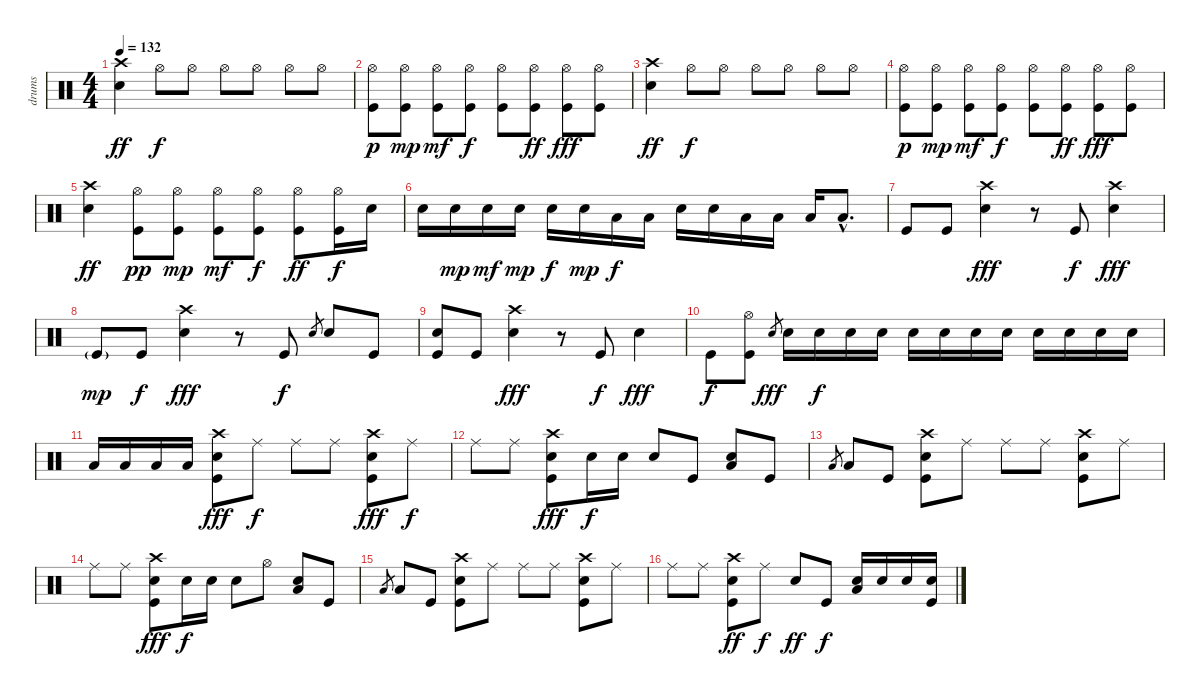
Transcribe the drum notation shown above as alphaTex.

\track ("drums" "drums") {instrument percussion}
\staff {score}
\articulation defaults
\ts (4 4)
\tempo 132
\clef neutral
\ks c
("Crash high (hit)" "Electric Snare (hit)").4{dy ff} "Hi-Hat (open)".8{dy f} "Hi-Hat (open)".8 "Hi-Hat (open)".8 "Hi-Hat (open)".8 "Hi-Hat (open)".8 "Hi-Hat (open)".8 |
("Hi-Hat (open)" "Kick (hit)").8{dy p} ("Hi-Hat (open)" "Kick (hit)").8{dy mp} ("Hi-Hat (open)" "Kick (hit)").8{dy mf} ("Hi-Hat (open)" "Kick (hit)").8{dy f} ("Hi-Hat (open)" "Kick (hit)").8 ("Hi-Hat (open)" "Kick (hit)").8{dy ff} ("Hi-Hat (open)" "Kick (hit)").8{dy fff} ("Hi-Hat (open)" "Kick (hit)").8 |
("Crash high (hit)" "Electric Snare (hit)").4{dy ff} "Hi-Hat (open)".8{dy f} "Hi-Hat (open)".8 "Hi-Hat (open)".8 "Hi-Hat (open)".8 "Hi-Hat (open)".8 "Hi-Hat (open)".8 |
("Hi-Hat (open)" "Kick (hit)").8{dy p} ("Hi-Hat (open)" "Kick (hit)").8{dy mp} ("Hi-Hat (open)" "Kick (hit)").8{dy mf} ("Hi-Hat (open)" "Kick (hit)").8{dy f} ("Hi-Hat (open)" "Kick (hit)").8 ("Hi-Hat (open)" "Kick (hit)").8{dy ff} ("Hi-Hat (open)" "Kick (hit)").8{dy fff} ("Hi-Hat (open)" "Kick (hit)").8 |
("Crash high (hit)" "Electric Snare (hit)").4{dy ff} ("Hi-Hat (open)" "Kick (hit)").8{dy pp} ("Hi-Hat (open)" "Kick (hit)").8{dy mp} ("Hi-Hat (open)" "Kick (hit)").8{dy mf} ("Hi-Hat (open)" "Kick (hit)").8{dy f} ("Hi-Hat (open)" "Kick (hit)").8{dy ff} ("Hi-Hat (open)" "Kick (hit)").16{dy f} "Electric Snare (hit)".16 |
"Electric Snare (hit)".16 "Electric Snare (hit)".16{dy mp} "Electric Snare (hit)".16{dy mf} "Electric Snare (hit)".16{dy mp} "Electric Snare (hit)".16{dy f} "Electric Snare (hit)".16{dy mp} "Low Tom (hit)".16{dy f} "Low Tom (hit)".16 "Electric Snare (hit)".16 "Electric Snare (hit)".16 "Low Tom (hit)".16 "Low Floor Tom (hit)".16 "Low Floor Tom (hit)".16 "Low Floor Tom (hit)"{hac}.8{d} |
"Kick (hit)".8 "Kick (hit)".8 ("Crash high (hit)" "Electric Snare (hit)").4{dy fff} r.8 "Kick (hit)".8{dy f} ("Crash high (hit)" "Electric Snare (hit)").4{dy fff} |
"Kick (hit)"{g}.8{dy mp} "Kick (hit)".8{dy f} ("Crash high (hit)" "Electric Snare (hit)").4{dy fff} r.8 "Kick (hit)".8{dy f} "Electric Snare (hit)".8{gr} "Electric Snare (hit)".8 "Kick (hit)".8 |
("Electric Snare (hit)" "Kick (hit)").8 "Kick (hit)".8 ("Crash high (hit)" "Electric Snare (hit)").4{dy fff} r.8 "Kick (hit)".8{dy f} "Electric Snare (hit)".4{dy fff} |
"Kick (hit)".8{dy f} ("Hi-Hat (open)" "Kick (hit)").8 "Electric Snare (hit)".8{gr dy fff} "Electric Snare (hit)".16 "Electric Snare (hit)".16{dy f} "Electric Snare (hit)".16 "Electric Snare (hit)".16 "Electric Snare (hit)".16 "Electric Snare (hit)".16 "Electric Snare (hit)".16 "Electric Snare (hit)".16 "Electric Snare (hit)".16 "Electric Snare (hit)".16 "Electric Snare (hit)".16 "Electric Snare (hit)".16 |
"Low Tom (hit)".16 "Low Tom (hit)".16 "Low Floor Tom (hit)".16 "Low Floor Tom (hit)".16 ("Crash high (hit)" "Electric Snare (hit)" "Kick (hit)").8{dy fff} "Ride (middle)".8{dy f} "Ride (middle)".8 "Ride (middle)".8 ("Crash high (hit)" "Electric Snare (hit)" "Kick (hit)").8{dy fff} "Ride (middle)".8{dy f} |
"Ride (middle)".8 "Ride (middle)".8 ("Crash high (hit)" "Electric Snare (hit)" "Kick (hit)").8{dy fff} "Electric Snare (hit)".16{dy f} "Electric Snare (hit)".16 "Electric Snare (hit)".8 "Kick (hit)".8 ("Low Tom (hit)" "Electric Snare (hit)").8 "Kick (hit)".8 |
"Low Floor Tom (hit)".8{gr} "Low Tom (hit)".8 "Kick (hit)".8 ("Crash high (hit)" "Electric Snare (hit)" "Kick (hit)").8 "Ride (middle)".8 "Ride (middle)".8 "Ride (middle)".8 ("Crash high (hit)" "Electric Snare (hit)" "Kick (hit)").8 "Ride (middle)".8 |
"Ride (middle)".8 "Ride (middle)".8 ("Crash high (hit)" "Electric Snare (hit)" "Kick (hit)").8{dy fff} "Electric Snare (hit)".16{dy f} "Electric Snare (hit)".16 "Electric Snare (hit)".8 "Hi-Hat (open)".8 ("Low Tom (hit)" "Electric Snare (hit)").8 "Kick (hit)".8 |
"Low Floor Tom (hit)".8{gr} "Low Tom (hit)".8 "Kick (hit)".8 ("Crash high (hit)" "Electric Snare (hit)" "Kick (hit)").8 "Ride (middle)".8 "Ride (middle)".8 "Ride (middle)".8 ("Crash high (hit)" "Electric Snare (hit)" "Kick (hit)").8 "Ride (middle)".8 |
"Ride (middle)".8 "Ride (middle)".8 ("Crash high (hit)" "Electric Snare (hit)" "Kick (hit)").8{dy ff} "Ride (middle)".8{dy f} "Electric Snare (hit)".8{dy ff} "Kick (hit)".8{dy f} ("Low Tom (hit)" "Electric Snare (hit)").16 "Electric Snare (hit)".16 "Electric Snare (hit)".16 ("Snare (hit)" "Kick (hit)").16
